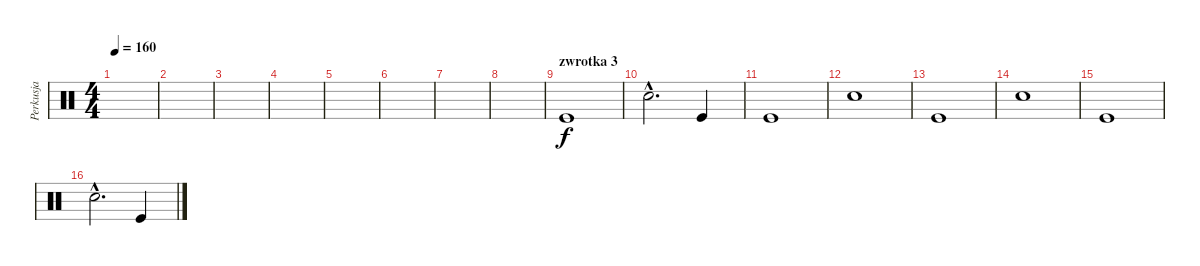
\track ("Perkusja" "Perkusja") {instrument percussion}
\staff {score}
\articulation defaults
\ts (4 4)
\tempo 160
\clef neutral
\ks c
|
|
|
|
|
|
|
|
\section ("" "zwrotka 3")
"Kick (hit)".1 |
"Snare (hit) 2"{hac}.2{d} "Kick (hit)".4 |
"Kick (hit)".1 |
"Snare (hit) 2".1 |
"Kick (hit)".1 |
"Snare (hit) 2".1 |
"Kick (hit)".1 |
"Snare (hit) 2"{hac}.2{d} "Kick (hit)".4
